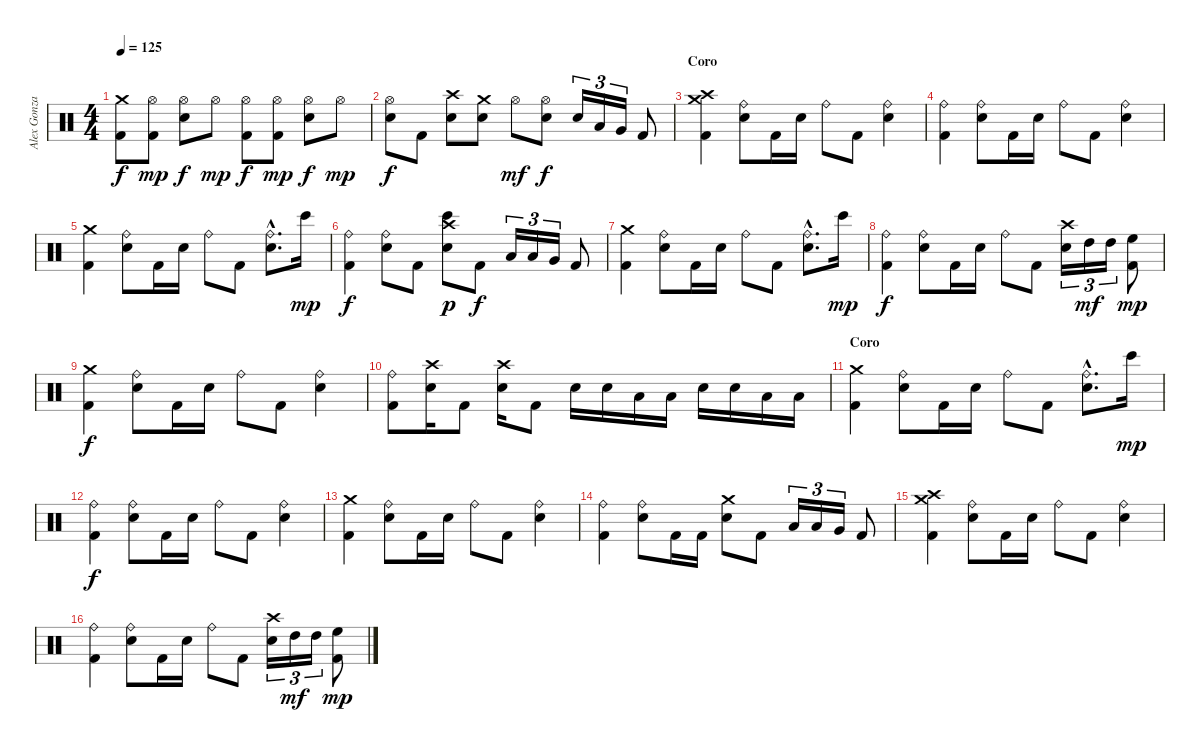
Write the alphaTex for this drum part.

\track ("Alex Gonzales" "Alex Gonza") {instrument percussion}
\staff {score}
\articulation defaults
\ts (4 4)
\tempo 125
\clef neutral
\ks c
("Crash medium (hit)" "Kick (hit) 2").8{dy f} ("Hi-Hat (open)" "Kick (hit) 2").8{dy mp} ("Hi-Hat (open)" "Electric Snare (hit)").8{dy f} "Hi-Hat (open)".8{dy mp} ("Hi-Hat (open)" "Kick (hit) 2").8{dy f} ("Hi-Hat (open)" "Kick (hit) 2").8{dy mp} ("Hi-Hat (open)" "Electric Snare (hit)").8{dy f} "Hi-Hat (open)".8{dy mp} |
("Hi-Hat (open)" "Electric Snare (hit)").8{dy f} "Kick (hit) 2".8 ("Crash high (hit)" "Electric Snare (hit)").8 ("Crash medium (hit)" "Electric Snare (hit)").8 "Hi-Hat (open)".8{dy mf} ("Hi-Hat (open)" "Electric Snare (hit)").8{dy f} "Electric Snare (hit)".16{tu (3 2)} "Low Tom (hit)".16{tu (3 2)} "Very Low Tom (hit)".16{tu (3 2)} "Kick (hit) 2".8 |
\section ("" "Coro")
("Crash medium (hit)" "Crash high (hit)" "Kick (hit) 2").4 ("Ride (bell)" "Electric Snare (hit)").8 "Kick (hit) 2".16 "Electric Snare (hit)".16 "Ride (bell)".8 "Kick (hit) 2".8 ("Ride (bell)" "Electric Snare (hit)").4 |
("Ride (bell)" "Kick (hit) 2").4 ("Ride (bell)" "Electric Snare (hit)").8 "Kick (hit) 2".16 "Electric Snare (hit)".16 "Ride (bell)".8 "Kick (hit) 2".8 ("Ride (bell)" "Electric Snare (hit)").4 |
("Crash medium (hit)" "Kick (hit) 2").4 ("Ride (bell)" "Electric Snare (hit)").8 "Kick (hit) 2".16 "Electric Snare (hit)".16 "Ride (bell)".8 "Kick (hit) 2".8 ("Ride (bell)"{hac} "Electric Snare (hit)"{hac}).8{d} "Bongo High (hit)".16{dy mp} |
("Ride (bell)" "Kick (hit) 2").4{dy f} ("Ride (bell)" "Electric Snare (hit)").8 "Kick (hit) 2".8 ("Crash high (hit)" "Electric Snare (hit)" "Bongo High (hit)").8{dy p} "Kick (hit) 2".8{dy f} "Low Tom (hit)".16{tu (3 2)} "Low Tom (hit)".16{tu (3 2)} "Very Low Tom (hit)".16{tu (3 2)} "Kick (hit) 2".8 |
("Crash medium (hit)" "Kick (hit) 2").4 ("Ride (bell)" "Electric Snare (hit)").8 "Kick (hit) 2".16 "Electric Snare (hit)".16 "Ride (bell)".8 "Kick (hit) 2".8 ("Ride (bell)"{hac} "Electric Snare (hit)"{hac}).8{d} "Bongo High (hit)".16{dy mp} |
("Ride (bell)" "Kick (hit) 2").4{dy f} ("Ride (bell)" "Electric Snare (hit)").8 "Kick (hit) 2".16 "Electric Snare (hit)".16 "Ride (bell)".8 "Kick (hit) 2".8 ("Crash high (hit)" "Electric Snare (hit)").16{tu (3 2)} "High Tom (hit)".16{tu (3 2) dy mf} "High Tom (hit)".16{tu (3 2)} ("High Floor Tom (hit)" "Kick (hit) 2").8{dy mp} |
("Crash medium (hit)" "Kick (hit) 2").4{dy f} ("Ride (bell)" "Electric Snare (hit)").8 "Kick (hit) 2".16 "Electric Snare (hit)".16 "Ride (bell)".8 "Kick (hit) 2".8 ("Ride (bell)" "Electric Snare (hit)").4 |
("Ride (bell)" "Kick (hit) 2").8 ("Crash high (hit)" "Electric Snare (hit)").16 "Kick (hit) 2".8 ("Crash high (hit)" "Electric Snare (hit)").16 "Kick (hit) 2".8 "Electric Snare (hit)".16 "Electric Snare (hit)".16 "Low Tom (hit)".16 "Low Tom (hit)".16 "Electric Snare (hit)".16 "Electric Snare (hit)".16 "Low Tom (hit)".16 "Low Tom (hit)".16 |
\section ("" "Coro")
("Crash medium (hit)" "Kick (hit) 2").4 ("Ride (bell)" "Electric Snare (hit)").8 "Kick (hit) 2".16 "Electric Snare (hit)".16 "Ride (bell)".8 "Kick (hit) 2".8 ("Ride (bell)"{hac} "Electric Snare (hit)"{hac}).8{d} "Bongo High (hit)".16{dy mp} |
("Ride (bell)" "Kick (hit) 2").4{dy f} ("Ride (bell)" "Electric Snare (hit)").8 "Kick (hit) 2".16 "Electric Snare (hit)".16 "Ride (bell)".8 "Kick (hit) 2".8 ("Ride (bell)" "Electric Snare (hit)").4 |
("Crash medium (hit)" "Kick (hit) 2").4 ("Ride (bell)" "Electric Snare (hit)").8 "Kick (hit) 2".16 "Electric Snare (hit)".16 "Ride (bell)".8 "Kick (hit) 2".8 ("Ride (bell)" "Electric Snare (hit)").4 |
("Ride (bell)" "Kick (hit) 2").4 ("Ride (bell)" "Electric Snare (hit)").8 "Kick (hit) 2".16 "Kick (hit) 2".16 ("Crash medium (hit)" "Electric Snare (hit)").8 "Kick (hit) 2".8 "Low Tom (hit)".16{tu (3 2)} "Low Tom (hit)".16{tu (3 2)} "Very Low Tom (hit)".16{tu (3 2)} "Kick (hit) 2".8 |
("Crash medium (hit)" "Crash high (hit)" "Kick (hit) 2").4 ("Ride (bell)" "Electric Snare (hit)").8 "Kick (hit) 2".16 "Electric Snare (hit)".16 "Ride (bell)".8 "Kick (hit) 2".8 ("Ride (bell)" "Electric Snare (hit)").4 |
("Ride (bell)" "Kick (hit) 2").4 ("Ride (bell)" "Electric Snare (hit)").8 "Kick (hit) 2".16 "Electric Snare (hit)".16 "Ride (bell)".8 "Kick (hit) 2".8 ("Crash high (hit)" "Electric Snare (hit)").16{tu (3 2)} "High Tom (hit)".16{tu (3 2) dy mf} "High Tom (hit)".16{tu (3 2)} ("High Floor Tom (hit)" "Kick (hit) 2").8{dy mp}
